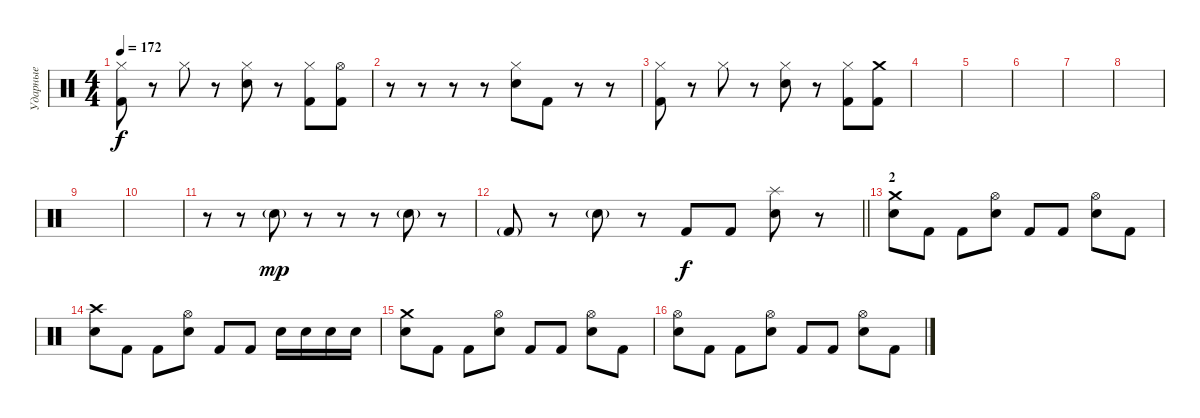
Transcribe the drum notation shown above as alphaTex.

\track ("Ударные" "Ударные") {instrument percussion}
\staff {score}
\articulation defaults
\ts (4 4)
\tempo 172
\clef neutral
\ks c
("Hi-Hat (closed)" "Kick (hit) 2").8{dy f} r.8 "Hi-Hat (closed)".8 r.8 ("Hi-Hat (closed)" "Electric Snare (hit)").8 r.8 ("Hi-Hat (closed)" "Kick (hit) 2").8 ("Hi-Hat (open)" "Kick (hit) 2").8 |
r.8 r.8 r.8 r.8 ("Hi-Hat (closed)" "Electric Snare (hit)").8 "Kick (hit) 2".8 r.8 r.8 |
("Hi-Hat (closed)" "Kick (hit) 2").8 r.8 "Hi-Hat (closed)".8 r.8 ("Hi-Hat (closed)" "Electric Snare (hit)").8 r.8 ("Hi-Hat (closed)" "Kick (hit) 2").8 ("Crash medium (hit)" "Kick (hit) 2").8 |
|
|
|
|
|
|
|
r.8 r.8 "Electric Snare (hit)"{g}.8{dy mp} r.8 r.8 r.8 "Electric Snare (hit)"{g}.8 r.8 |
\barLineRight lightlight "Kick (hit) 2"{g}.8
r.8 "Electric Snare (hit)"{g}.8 r.8 "Kick (hit) 2".8{dy f} "Kick (hit) 2".8 ("Splash (hit)" "Electric Snare (hit)").8 r.8 |
\section ("" "2")
("Crash medium (hit)" "Electric Snare (hit)").8 "Kick (hit) 2".8 "Kick (hit) 2".8 ("Hi-Hat (open)" "Electric Snare (hit)").8 "Kick (hit) 2".8 "Kick (hit) 2".8 ("Hi-Hat (open)" "Electric Snare (hit)").8 "Kick (hit) 2".8 |
("Crash high (hit)" "Electric Snare (hit)").8 "Kick (hit) 2".8 "Kick (hit) 2".8 ("Hi-Hat (open)" "Electric Snare (hit)").8 "Kick (hit) 2".8 "Kick (hit) 2".8 "Electric Snare (hit)".16 "Electric Snare (hit)".16 "Electric Snare (hit)".16 "Electric Snare (hit)".16 |
("Crash medium (hit)" "Electric Snare (hit)").8 "Kick (hit) 2".8 "Kick (hit) 2".8 ("Hi-Hat (open)" "Electric Snare (hit)").8 "Kick (hit) 2".8 "Kick (hit) 2".8 ("Hi-Hat (open)" "Electric Snare (hit)").8 "Kick (hit) 2".8 |
("Hi-Hat (open)" "Electric Snare (hit)").8 "Kick (hit) 2".8 "Kick (hit) 2".8 ("Hi-Hat (open)" "Electric Snare (hit)").8 "Kick (hit) 2".8 "Kick (hit) 2".8 ("Hi-Hat (open)" "Electric Snare (hit)").8 "Kick (hit) 2".8
